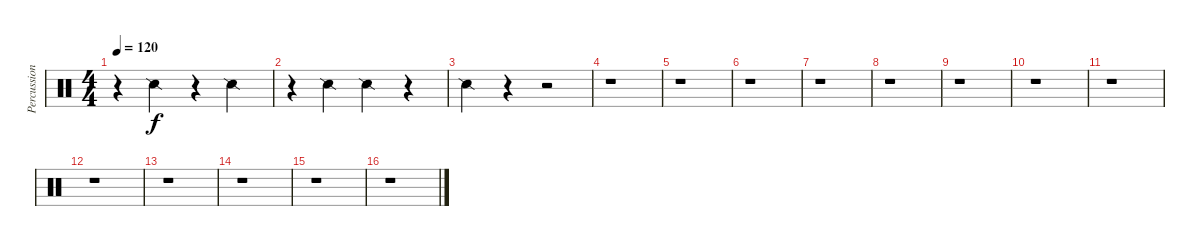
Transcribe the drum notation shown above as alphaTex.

\track ("Percussions" "Percussion") {instrument percussion}
\staff {score}
\articulation defaults
\ts (4 4)
\tempo 120
\clef neutral
\ks c
r.4{dy f} "Snare (side stick) 2".4 r.4 "Snare (side stick) 2".4 |
r.4 "Snare (side stick) 2".4 "Snare (side stick) 2".4 r.4 |
"Snare (side stick) 2".4 r.4 r.2 |
r.1 |
r.1 |
r.1 |
r.1 |
r.1 |
r.1 |
r.1 |
r.1 |
r.1 |
r.1 |
r.1 |
r.1 |
r.1
